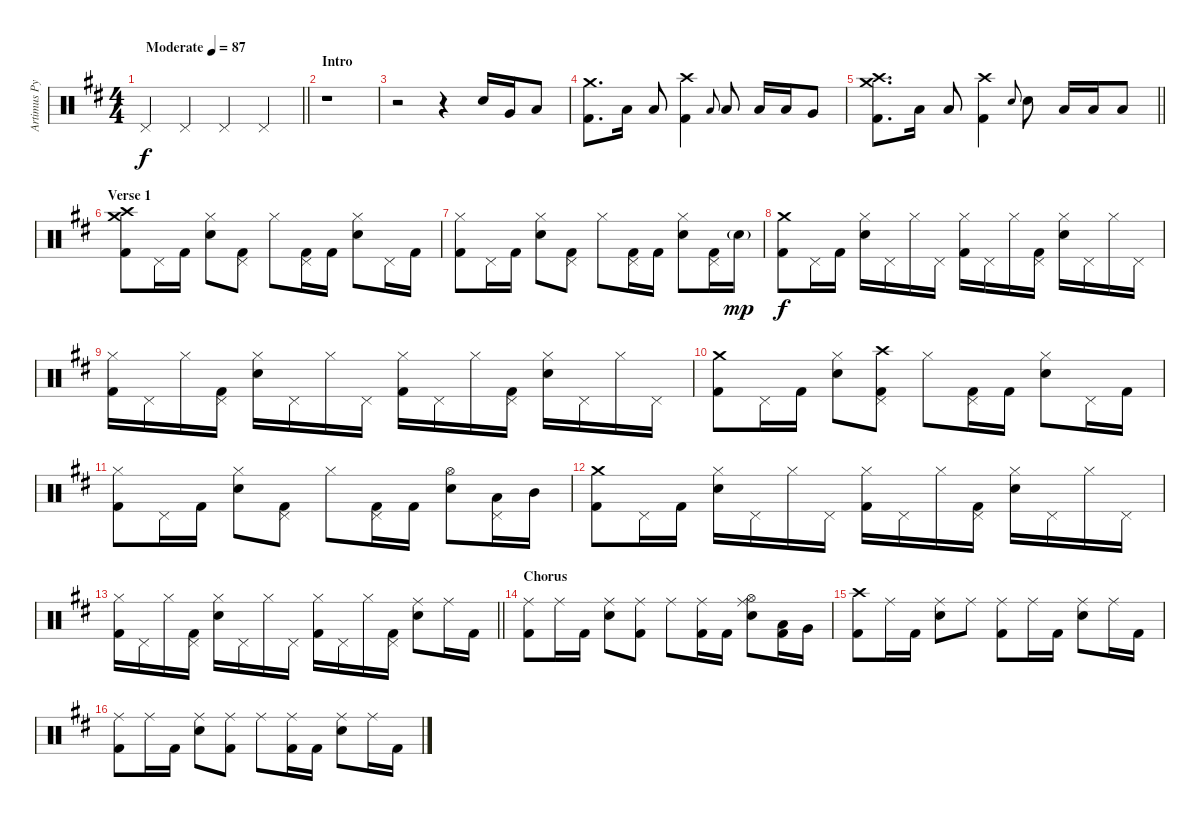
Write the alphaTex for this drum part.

\track ("Artimus Pyle - Drums" "Artimus Py") {instrument percussion}
\staff {score}
\articulation defaults
\ts (4 4)
\tempo (87 "Moderate")
\clef neutral
\barLineRight lightlight
\ks d "Pedal Hi-Hat (hit)".4{dy f} "Pedal Hi-Hat (hit)".4 "Pedal Hi-Hat (hit)".4 "Pedal Hi-Hat (hit)".4
|
\section ("" "Intro")
r.1 |
r.2 r.4 "Snare (hit) 2".16 "Very Low Tom (hit)".16 "Low Floor Tom (hit)".8 |
("Crash medium (hit)" "Kick (hit) 2").8{d} "Low Floor Tom (hit)".16 "Low Floor Tom (hit)".8 ("Crash high (hit)" "Kick (hit) 2").4 "Low Floor Tom (hit)".8{gr onbeat} "Low Floor Tom (hit)".8 "Low Tom (hit)".16 "Low Tom (hit)".16 "Very Low Tom (hit)".8 |
\barLineRight lightlight
("Crash medium (hit)" "Crash high (hit)" "Kick (hit) 2").8{d} "Low Floor Tom (hit)".16 "Low Floor Tom (hit)".8 ("Crash high (hit)" "Kick (hit) 2").4 "Snare (hit) 2".8{gr onbeat} "Snare (hit) 2".8 "Low Floor Tom (hit)".16 "Low Floor Tom (hit)".16 "Low Floor Tom (hit)".8 |
\section ("" "Verse 1")
("Crash medium (hit)" "Crash high (hit)" "Kick (hit) 2").8 "Pedal Hi-Hat (hit)".16 "Kick (hit) 2".16 ("Snare (hit) 2" "Hi-Hat (closed)").8 ("Pedal Hi-Hat (hit)" "Kick (hit) 2").8 "Hi-Hat (closed)".8 ("Pedal Hi-Hat (hit)" "Kick (hit) 2").16 "Kick (hit) 2".16 ("Snare (hit) 2" "Hi-Hat (closed)").8 "Pedal Hi-Hat (hit)".16 "Kick (hit) 2".16 |
("Hi-Hat (closed)" "Kick (hit) 2").8 "Pedal Hi-Hat (hit)".16 "Kick (hit) 2".16 ("Snare (hit) 2" "Hi-Hat (closed)").8 ("Pedal Hi-Hat (hit)" "Kick (hit) 2").8 "Hi-Hat (closed)".8 ("Pedal Hi-Hat (hit)" "Kick (hit) 2").16 "Kick (hit) 2".16 ("Snare (hit) 2" "Hi-Hat (closed)").8 ("Pedal Hi-Hat (hit)" "Kick (hit) 2").16 "Snare (hit) 2"{g}.16{dy mp} |
("Crash medium (hit)" "Kick (hit) 2").8{dy f} "Pedal Hi-Hat (hit)".16 "Kick (hit) 2".16 ("Snare (hit) 2" "Hi-Hat (closed)").16 "Pedal Hi-Hat (hit)".16 "Hi-Hat (closed)".16 "Pedal Hi-Hat (hit)".16 ("Hi-Hat (closed)" "Kick (hit) 2").16 "Pedal Hi-Hat (hit)".16 "Hi-Hat (closed)".16 ("Pedal Hi-Hat (hit)" "Kick (hit) 2").16 ("Snare (hit) 2" "Hi-Hat (closed)").16 "Pedal Hi-Hat (hit)".16 "Hi-Hat (closed)".16 "Pedal Hi-Hat (hit)".16 |
("Hi-Hat (closed)" "Kick (hit) 2").16 "Pedal Hi-Hat (hit)".16 "Hi-Hat (closed)".16 ("Pedal Hi-Hat (hit)" "Kick (hit) 2").16 ("Snare (hit) 2" "Hi-Hat (closed)").16 "Pedal Hi-Hat (hit)".16 "Hi-Hat (closed)".16 "Pedal Hi-Hat (hit)".16 ("Hi-Hat (closed)" "Kick (hit) 2").16 "Pedal Hi-Hat (hit)".16 "Hi-Hat (closed)".16 ("Pedal Hi-Hat (hit)" "Kick (hit) 2").16 ("Snare (hit) 2" "Hi-Hat (closed)").16 "Pedal Hi-Hat (hit)".16 "Hi-Hat (closed)".16 "Pedal Hi-Hat (hit)".16 |
("Crash medium (hit)" "Kick (hit) 2").8 "Pedal Hi-Hat (hit)".16 "Kick (hit) 2".16 ("Snare (hit) 2" "Hi-Hat (closed)").8 ("Crash high (hit)" "Pedal Hi-Hat (hit)" "Kick (hit) 2").8 "Hi-Hat (closed)".8 ("Pedal Hi-Hat (hit)" "Kick (hit) 2").16 "Kick (hit) 2".16 ("Snare (hit) 2" "Hi-Hat (closed)").8 "Pedal Hi-Hat (hit)".16 "Kick (hit) 2".16 |
("Hi-Hat (closed)" "Kick (hit) 2").8 "Pedal Hi-Hat (hit)".16 "Kick (hit) 2".16 ("Snare (hit) 2" "Hi-Hat (closed)").8 ("Pedal Hi-Hat (hit)" "Kick (hit) 2").8 "Hi-Hat (closed)".8 ("Pedal Hi-Hat (hit)" "Kick (hit) 2").16 "Kick (hit) 2".16 ("Snare (hit) 2" "Hi-Hat (open)").8 ("Pedal Hi-Hat (hit)" "Low Floor Tom (hit)").16 "Mid Tom (hit)".16 |
("Crash medium (hit)" "Kick (hit) 2").8 "Pedal Hi-Hat (hit)".16 "Kick (hit) 2".16 ("Snare (hit) 2" "Hi-Hat (closed)").16 "Pedal Hi-Hat (hit)".16 "Hi-Hat (closed)".16 "Pedal Hi-Hat (hit)".16 ("Hi-Hat (closed)" "Kick (hit) 2").16 "Pedal Hi-Hat (hit)".16 "Hi-Hat (closed)".16 ("Pedal Hi-Hat (hit)" "Kick (hit) 2").16 ("Snare (hit) 2" "Hi-Hat (closed)").16 "Pedal Hi-Hat (hit)".16 "Hi-Hat (closed)".16 "Pedal Hi-Hat (hit)".16 |
\barLineRight lightlight
("Hi-Hat (closed)" "Kick (hit) 2").16 "Pedal Hi-Hat (hit)".16 "Hi-Hat (closed)".16 ("Pedal Hi-Hat (hit)" "Kick (hit) 2").16 ("Snare (hit) 2" "Hi-Hat (closed)").16 "Pedal Hi-Hat (hit)".16 "Hi-Hat (closed)".16 "Pedal Hi-Hat (hit)".16 ("Hi-Hat (closed)" "Kick (hit) 2").16 "Pedal Hi-Hat (hit)".16 "Hi-Hat (closed)".16 ("Pedal Hi-Hat (hit)" "Kick (hit) 2").16 ("Ride (middle)" "Snare (hit) 2").8 "Ride (middle)".16 "Kick (hit) 2".16 |
\section ("" "Chorus")
("Ride (middle)" "Kick (hit) 2").8 "Ride (middle)".16 "Kick (hit) 2".16 ("Ride (middle)" "Snare (hit) 2").8 ("Ride (middle)" "Kick (hit) 2").8 "Ride (middle)".8 ("Ride (middle)" "Kick (hit) 2").16 "Kick (hit) 2".16 ("Ride (middle)" "Snare (hit) 2" "Hi-Hat (open)").8 ("Low Tom (hit)" "Kick (hit) 2").16 "Very Low Tom (hit)".16 |
("Crash high (hit)" "Kick (hit) 2").8 "Ride (middle)".16 "Kick (hit) 2".16 ("Ride (middle)" "Snare (hit) 2").8 "Ride (middle)".8 ("Ride (middle)" "Kick (hit) 2").8 "Ride (middle)".16 "Kick (hit) 2".16 ("Ride (middle)" "Snare (hit) 2").8 "Ride (middle)".16 "Kick (hit) 2".16 |
("Ride (middle)" "Kick (hit) 2").8 "Ride (middle)".16 "Kick (hit) 2".16 ("Ride (middle)" "Snare (hit) 2").8 ("Ride (middle)" "Kick (hit) 2").8 "Ride (middle)".8 ("Ride (middle)" "Kick (hit) 2").16 "Kick (hit) 2".16 ("Ride (middle)" "Snare (hit) 2").8 "Ride (middle)".16 "Kick (hit) 2".16
